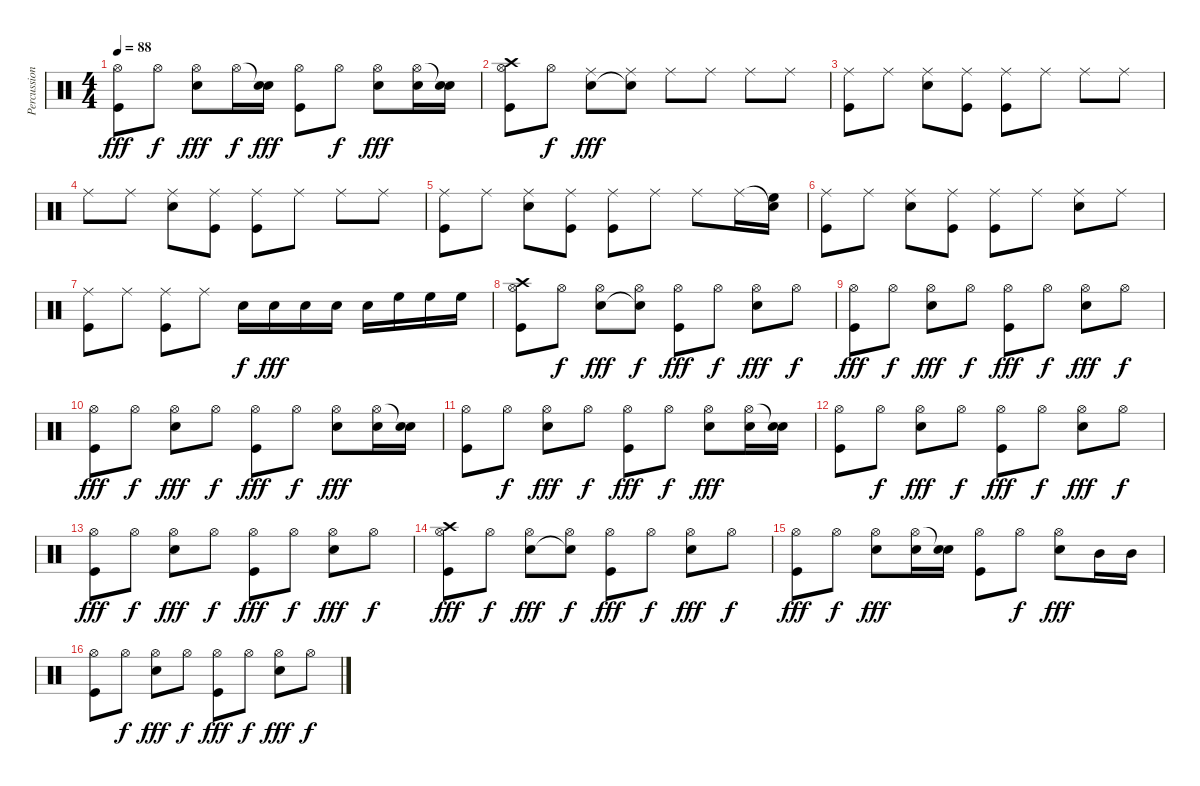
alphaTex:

\track ("Percussions" "Percussion") {instrument percussion}
\staff {score}
\articulation defaults
\ts (4 4)
\tempo 88
\clef neutral
\ks c
("Hi-Hat (open)" "Kick (hit)").8{dy fff} "Hi-Hat (open)".8{dy f} ("Hi-Hat (open)" "Snare (hit) 2").8{dy fff} "Hi-Hat (open)".16{dy f} ("Snare (hit)"{t} "Snare (hit) 2").16{dy fff} ("Hi-Hat (open)" "Kick (hit)").8 "Hi-Hat (open)".8{dy f} ("Hi-Hat (open)" "Snare (hit) 2").8{dy fff} ("Hi-Hat (open)" "Snare (hit) 2").16 ("Snare (hit)"{t} "Snare (hit) 2").16 |
("Hi-Hat (open)" "Kick (hit)" "Crash high (hit)").8 "Hi-Hat (open)".8{dy f} ("Ride (middle)" "Snare (hit) 2").8{dy fff} ("Ride (middle)" "Snare (hit)"{t}).8 "Ride (middle)".8 "Ride (middle)".8 "Ride (middle)".8 "Ride (middle)".8 |
("Ride (middle)" "Kick (hit)").8 "Ride (middle)".8 ("Ride (middle)" "Snare (hit) 2").8 ("Ride (middle)" "Kick (hit)").8 ("Ride (middle)" "Kick (hit)").8 "Ride (middle)".8 "Ride (middle)".8 "Ride (middle)".8 |
"Ride (middle)".8 "Ride (middle)".8 ("Ride (middle)" "Snare (hit) 2").8 ("Ride (middle)" "Kick (hit)").8 ("Ride (middle)" "Kick (hit)").8 "Ride (middle)".8 "Ride (middle)".8 "Ride (middle)".8 |
("Ride (middle)" "Kick (hit)").8 "Ride (middle)".8 ("Ride (middle)" "Snare (hit) 2").8 ("Ride (middle)" "Kick (hit)").8 ("Ride (middle)" "Kick (hit)").8 "Ride (middle)".8 "Ride (middle)".8 "Ride (middle)".16 ("Snare (hit)"{t} "High Floor Tom (hit)").16 |
("Ride (middle)" "Kick (hit)").8 "Ride (middle)".8 ("Ride (middle)" "Snare (hit) 2").8 ("Ride (middle)" "Kick (hit)").8 ("Ride (middle)" "Kick (hit)").8 "Ride (middle)".8 ("Ride (middle)" "Snare (hit) 2").8 "Ride (middle)".8 |
("Ride (middle)" "Kick (hit)").8 "Ride (middle)".8 ("Ride (middle)" "Kick (hit)").8 "Ride (middle)".8 "Snare (hit) 2".16{dy f} "Snare (hit) 2".16{dy fff} "Snare (hit) 2".16 "Snare (hit) 2".16 "Snare (hit) 2".16 "High Floor Tom (hit)".16 "High Floor Tom (hit)".16 "High Floor Tom (hit)".16 |
("Hi-Hat (open)" "Kick (hit)" "Crash high (hit)").8 "Hi-Hat (open)".8{dy f} ("Hi-Hat (open)" "Snare (hit) 2").8{dy fff} ("Hi-Hat (open)" "Snare (hit)"{t}).8{dy f} ("Hi-Hat (open)" "Kick (hit)").8{dy fff} "Hi-Hat (open)".8{dy f} ("Hi-Hat (open)" "Snare (hit) 2").8{dy fff} "Hi-Hat (open)".8{dy f} |
("Hi-Hat (open)" "Kick (hit)").8{dy fff} "Hi-Hat (open)".8{dy f} ("Hi-Hat (open)" "Snare (hit) 2").8{dy fff} "Hi-Hat (open)".8{dy f} ("Hi-Hat (open)" "Kick (hit)").8{dy fff} "Hi-Hat (open)".8{dy f} ("Hi-Hat (open)" "Snare (hit) 2").8{dy fff} "Hi-Hat (open)".8{dy f} |
("Hi-Hat (open)" "Kick (hit)").8{dy fff} "Hi-Hat (open)".8{dy f} ("Hi-Hat (open)" "Snare (hit) 2").8{dy fff} "Hi-Hat (open)".8{dy f} ("Hi-Hat (open)" "Kick (hit)").8{dy fff} "Hi-Hat (open)".8{dy f} ("Hi-Hat (open)" "Snare (hit) 2").8{dy fff} ("Hi-Hat (open)" "Snare (hit) 2").16 ("Snare (hit)"{t} "Snare (hit) 2").16 |
("Hi-Hat (open)" "Kick (hit)").8 "Hi-Hat (open)".8{dy f} ("Hi-Hat (open)" "Snare (hit) 2").8{dy fff} "Hi-Hat (open)".8{dy f} ("Hi-Hat (open)" "Kick (hit)").8{dy fff} "Hi-Hat (open)".8{dy f} ("Hi-Hat (open)" "Snare (hit) 2").8{dy fff} ("Hi-Hat (open)" "Snare (hit) 2").16 ("Snare (hit)"{t} "Snare (hit) 2").16 |
("Hi-Hat (open)" "Kick (hit)").8 "Hi-Hat (open)".8{dy f} ("Hi-Hat (open)" "Snare (hit) 2").8{dy fff} "Hi-Hat (open)".8{dy f} ("Hi-Hat (open)" "Kick (hit)").8{dy fff} "Hi-Hat (open)".8{dy f} ("Hi-Hat (open)" "Snare (hit) 2").8{dy fff} "Hi-Hat (open)".8{dy f} |
("Hi-Hat (open)" "Kick (hit)").8{dy fff} "Hi-Hat (open)".8{dy f} ("Hi-Hat (open)" "Snare (hit) 2").8{dy fff} "Hi-Hat (open)".8{dy f} ("Hi-Hat (open)" "Kick (hit)").8{dy fff} "Hi-Hat (open)".8{dy f} ("Hi-Hat (open)" "Snare (hit) 2").8{dy fff} "Hi-Hat (open)".8{dy f} |
("Hi-Hat (open)" "Kick (hit)" "Crash high (hit)").8{dy fff} "Hi-Hat (open)".8{dy f} ("Hi-Hat (open)" "Snare (hit) 2").8{dy fff} ("Hi-Hat (open)" "Snare (hit)"{t}).8{dy f} ("Hi-Hat (open)" "Kick (hit)").8{dy fff} "Hi-Hat (open)".8{dy f} ("Hi-Hat (open)" "Snare (hit) 2").8{dy fff} "Hi-Hat (open)".8{dy f} |
("Hi-Hat (open)" "Kick (hit)").8{dy fff} "Hi-Hat (open)".8{dy f} ("Hi-Hat (open)" "Snare (hit) 2").8{dy fff} ("Hi-Hat (open)" "Snare (hit) 2").16 ("Snare (hit)"{t} "Snare (hit) 2").16 ("Hi-Hat (open)" "Kick (hit)").8 "Hi-Hat (open)".8{dy f} ("Hi-Hat (open)" "Snare (hit) 2").8{dy fff} "Mid Tom (hit)".16 "Mid Tom (hit)".16 |
("Hi-Hat (open)" "Kick (hit)").8 "Hi-Hat (open)".8{dy f} ("Hi-Hat (open)" "Snare (hit) 2").8{dy fff} "Hi-Hat (open)".8{dy f} ("Hi-Hat (open)" "Kick (hit)").8{dy fff} "Hi-Hat (open)".8{dy f} ("Hi-Hat (open)" "Snare (hit) 2").8{dy fff} "Hi-Hat (open)".8{dy f}
